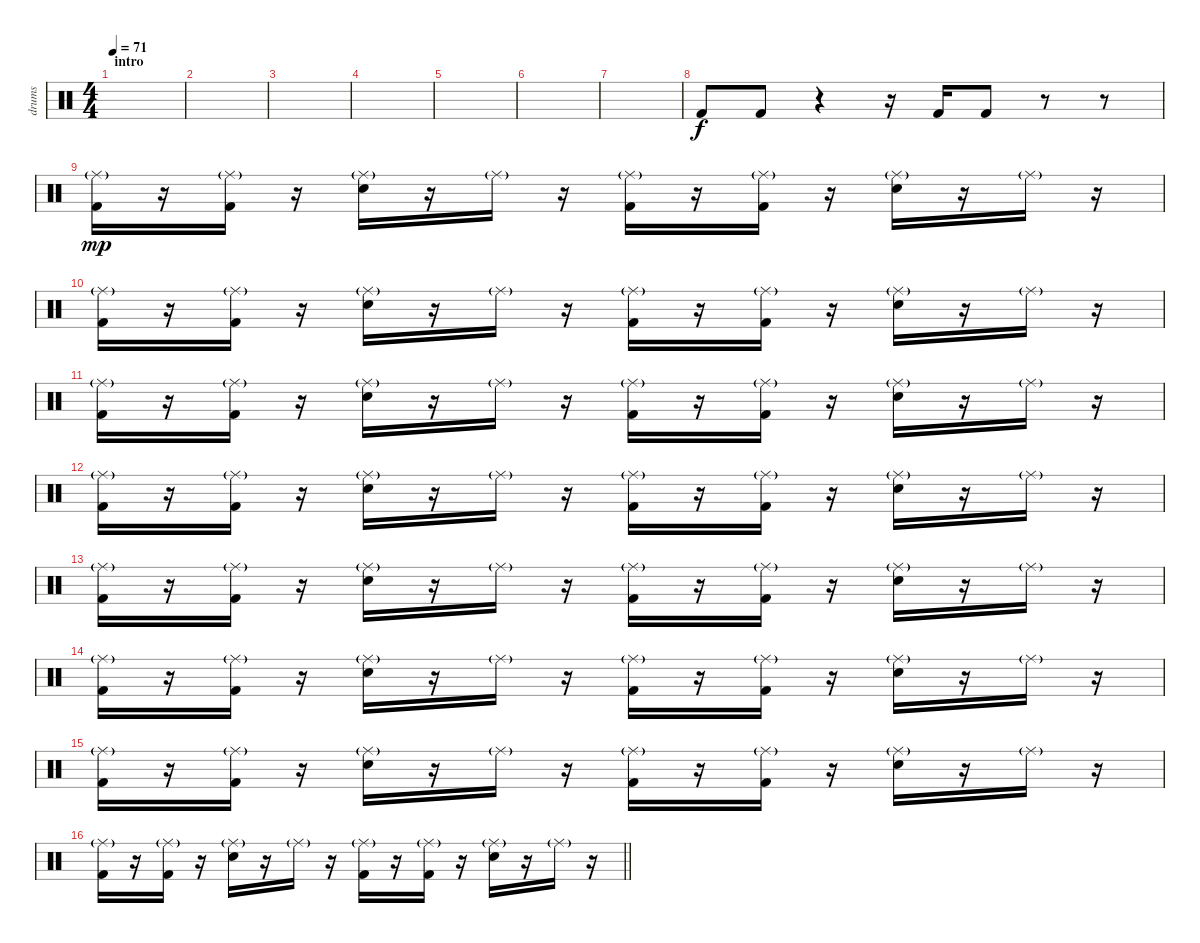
\track ("drums" "drums") {instrument percussion}
\staff {score}
\articulation defaults
\ts (4 4)
\section ("" "intro")
\tempo 71
\clef neutral
\ks c
|
|
|
|
|
|
|
"Kick (hit) 2".8 "Kick (hit) 2".8 r.4 r.16 "Kick (hit) 2".16 "Kick (hit) 2".8 r.8 r.8 |
("Kick (hit) 2" "Ride (middle)"{g}).16{dy mp} r.16 ("Kick (hit) 2" "Ride (middle)"{g}).16 r.16 ("Electric Snare (hit)" "Ride (middle)"{g}).16 r.16 "Ride (middle)"{g}.16 r.16 ("Kick (hit) 2" "Ride (middle)"{g}).16 r.16 ("Kick (hit) 2" "Ride (middle)"{g}).16 r.16 ("Electric Snare (hit)" "Ride (middle)"{g}).16 r.16 "Ride (middle)"{g}.16 r.16 |
("Kick (hit) 2" "Ride (middle)"{g}).16 r.16 ("Kick (hit) 2" "Ride (middle)"{g}).16 r.16 ("Electric Snare (hit)" "Ride (middle)"{g}).16 r.16 "Ride (middle)"{g}.16 r.16 ("Kick (hit) 2" "Ride (middle)"{g}).16 r.16 ("Kick (hit) 2" "Ride (middle)"{g}).16 r.16 ("Electric Snare (hit)" "Ride (middle)"{g}).16 r.16 "Ride (middle)"{g}.16 r.16 |
("Kick (hit) 2" "Ride (middle)"{g}).16 r.16 ("Kick (hit) 2" "Ride (middle)"{g}).16 r.16 ("Electric Snare (hit)" "Ride (middle)"{g}).16 r.16 "Ride (middle)"{g}.16 r.16 ("Kick (hit) 2" "Ride (middle)"{g}).16 r.16 ("Kick (hit) 2" "Ride (middle)"{g}).16 r.16 ("Electric Snare (hit)" "Ride (middle)"{g}).16 r.16 "Ride (middle)"{g}.16 r.16 |
("Kick (hit) 2" "Ride (middle)"{g}).16 r.16 ("Kick (hit) 2" "Ride (middle)"{g}).16 r.16 ("Electric Snare (hit)" "Ride (middle)"{g}).16 r.16 "Ride (middle)"{g}.16 r.16 ("Kick (hit) 2" "Ride (middle)"{g}).16 r.16 ("Kick (hit) 2" "Ride (middle)"{g}).16 r.16 ("Electric Snare (hit)" "Ride (middle)"{g}).16 r.16 "Ride (middle)"{g}.16 r.16 |
("Kick (hit) 2" "Ride (middle)"{g}).16 r.16 ("Kick (hit) 2" "Ride (middle)"{g}).16 r.16 ("Electric Snare (hit)" "Ride (middle)"{g}).16 r.16 "Ride (middle)"{g}.16 r.16 ("Kick (hit) 2" "Ride (middle)"{g}).16 r.16 ("Kick (hit) 2" "Ride (middle)"{g}).16 r.16 ("Electric Snare (hit)" "Ride (middle)"{g}).16 r.16 "Ride (middle)"{g}.16 r.16 |
("Kick (hit) 2" "Ride (middle)"{g}).16 r.16 ("Kick (hit) 2" "Ride (middle)"{g}).16 r.16 ("Electric Snare (hit)" "Ride (middle)"{g}).16 r.16 "Ride (middle)"{g}.16 r.16 ("Kick (hit) 2" "Ride (middle)"{g}).16 r.16 ("Kick (hit) 2" "Ride (middle)"{g}).16 r.16 ("Electric Snare (hit)" "Ride (middle)"{g}).16 r.16 "Ride (middle)"{g}.16 r.16 |
("Kick (hit) 2" "Ride (middle)"{g}).16 r.16 ("Kick (hit) 2" "Ride (middle)"{g}).16 r.16 ("Electric Snare (hit)" "Ride (middle)"{g}).16 r.16 "Ride (middle)"{g}.16 r.16 ("Kick (hit) 2" "Ride (middle)"{g}).16 r.16 ("Kick (hit) 2" "Ride (middle)"{g}).16 r.16 ("Electric Snare (hit)" "Ride (middle)"{g}).16 r.16 "Ride (middle)"{g}.16 r.16 |
\barLineRight lightlight
("Kick (hit) 2" "Ride (middle)"{g}).16 r.16 ("Kick (hit) 2" "Ride (middle)"{g}).16 r.16 ("Electric Snare (hit)" "Ride (middle)"{g}).16 r.16 "Ride (middle)"{g}.16 r.16 ("Kick (hit) 2" "Ride (middle)"{g}).16 r.16 ("Kick (hit) 2" "Ride (middle)"{g}).16 r.16 ("Electric Snare (hit)" "Ride (middle)"{g}).16 r.16 "Ride (middle)"{g}.16 r.16
